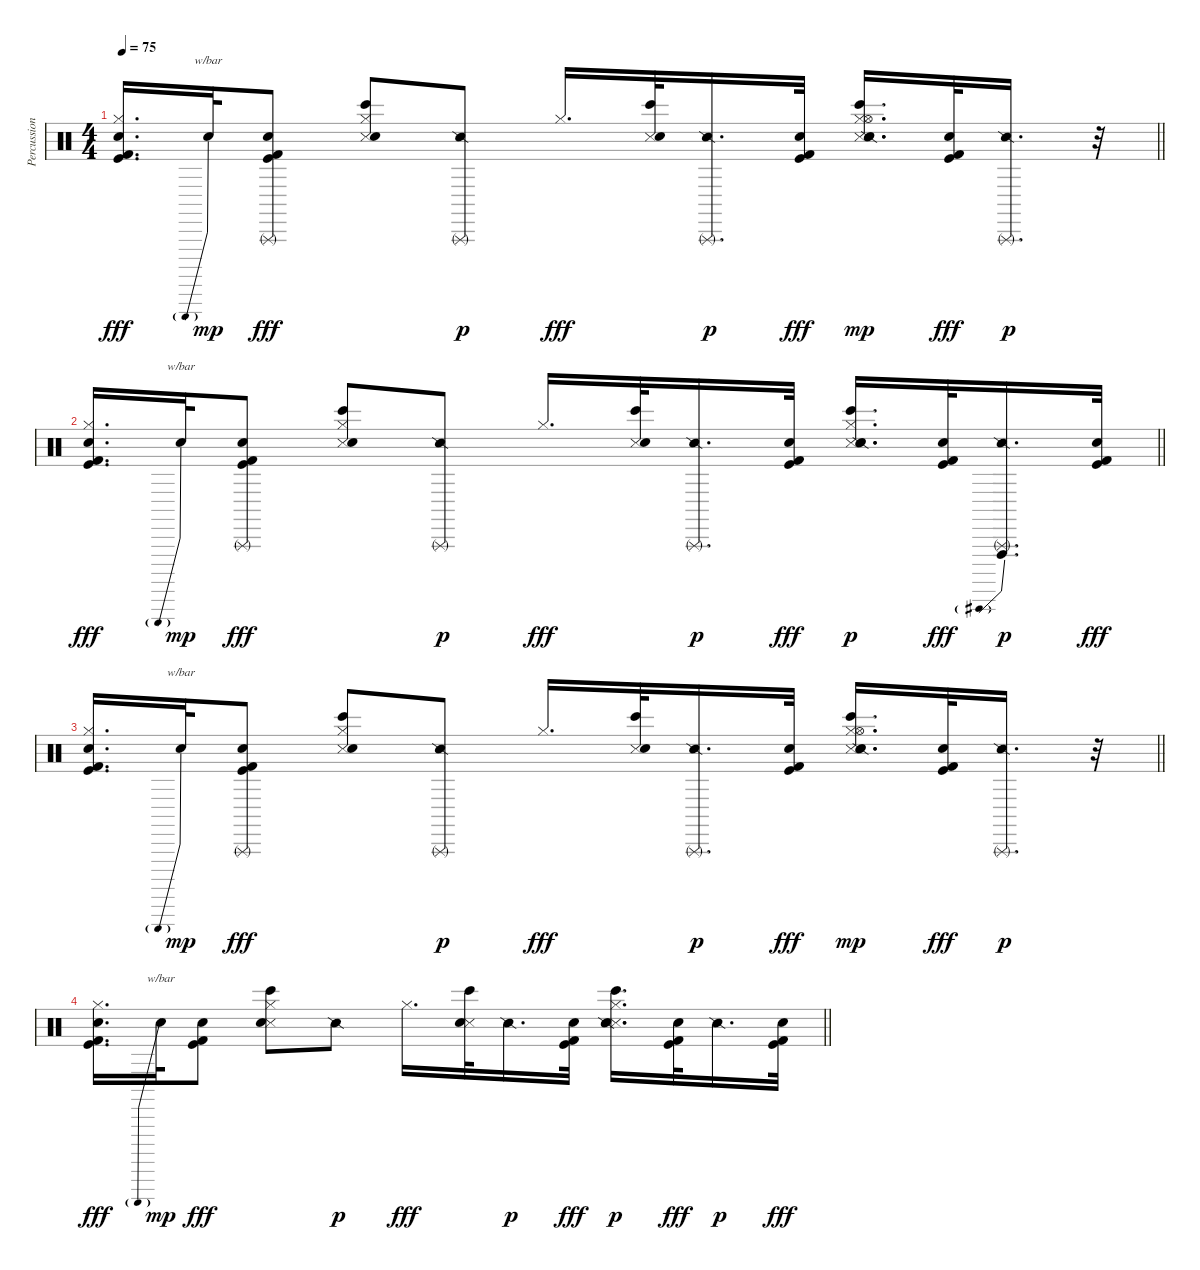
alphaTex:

\track ("Percussion" "Percussion") {instrument percussion}
\staff {score}
\articulation defaults
\ts (4 4)
\tempo 75
\clef neutral
\barLineRight lightlight
\ks c
("Hi-Hat (closed)" "Snare (hit) 2" "Kick (hit)" "Kick (hit) 2").16{d dy fff} "Hand Clap (hit)".32{tbe (predive default 0 24 60 24) dy mp} ("Triangle (rnute)" "Snare (hit) 2" "Kick (hit)" "Kick (hit) 2").8{dy fff} ("Hi-Hat (closed)" "Snare (side stick) 3" "Snare (hit) 2" "Bongo High (hit)").8 ("Triangle (rnute)" "Snare (side stick) 2").8{dy p} "Hi-Hat (closed)".16{d dy fff} ("Snare (side stick) 3" "Snare (hit) 2" "Bongo High (hit)").32 ("Triangle (rnute)" "Snare (side stick) 2").16{d dy p} ("Snare (hit) 2" "Kick (hit)" "Kick (hit) 2").32{dy fff} ("Hi-Hat (closed)" "Snare (side stick) 3" "Snare (hit) 2" "Bongo High (hit)" "Snare (side stick) 2" "Hi-Hat (open)").16{d dy mp} ("Snare (hit) 2" "Kick (hit)" "Kick (hit) 2").32{dy fff} ("Triangle (rnute)" "Snare (side stick) 2").16{d dy p} r.32 |
\barLineRight lightlight
("Hi-Hat (closed)" "Snare (hit) 2" "Kick (hit)" "Kick (hit) 2").16{d dy fff} "Hand Clap (hit)".32{tbe (predive default 0 24 60 24) dy mp} ("Triangle (rnute)" "Snare (hit) 2" "Kick (hit)" "Kick (hit) 2").8{dy fff} ("Hi-Hat (closed)" "Snare (side stick) 3" "Snare (hit) 2" "Bongo High (hit)").8 ("Triangle (rnute)" "Snare (side stick) 2").8{dy p} "Hi-Hat (closed)".16{d dy fff} ("Snare (side stick) 3" "Snare (hit) 2" "Bongo High (hit)").32 ("Triangle (rnute)" "Snare (side stick) 2").16{d dy p} ("Snare (hit) 2" "Kick (hit)" "Kick (hit) 2").32{dy fff} ("Hi-Hat (closed)" "Snare (side stick) 3" "Snare (hit) 2" "Bongo High (hit)" "Snare (side stick) 2").16{d dy p} ("Snare (hit) 2" "Kick (hit)" "Kick (hit) 2").32{dy fff} ("Triangle (rnute)" "Snare (side stick) 2" "Vibraslap (hit)"{be (prebend 0 12 60 12)}).16{d dy p} ("Snare (hit) 2" "Kick (hit)" "Kick (hit) 2").32{dy fff} |
\barLineRight lightlight
("Hi-Hat (closed)" "Snare (hit) 2" "Kick (hit)" "Kick (hit) 2").16{d} "Hand Clap (hit)".32{tbe (predive default 0 24 60 24) dy mp} ("Triangle (rnute)" "Snare (hit) 2" "Kick (hit)" "Kick (hit) 2").8{dy fff} ("Hi-Hat (closed)" "Snare (side stick) 3" "Snare (hit) 2" "Bongo High (hit)").8 ("Triangle (rnute)" "Snare (side stick) 2").8{dy p} "Hi-Hat (closed)".16{d dy fff} ("Snare (side stick) 3" "Snare (hit) 2" "Bongo High (hit)").32 ("Triangle (rnute)" "Snare (side stick) 2").16{d dy p} ("Snare (hit) 2" "Kick (hit)" "Kick (hit) 2").32{dy fff} ("Hi-Hat (closed)" "Snare (side stick) 3" "Snare (hit) 2" "Bongo High (hit)" "Snare (side stick) 2" "Hi-Hat (open)").16{d dy mp} ("Snare (hit) 2" "Kick (hit)" "Kick (hit) 2").32{dy fff} ("Triangle (rnute)" "Snare (side stick) 2").16{d dy p} r.32 |
\barLineRight lightlight
("Hi-Hat (closed)" "Snare (hit) 2" "Kick (hit)" "Kick (hit) 2").16{d dy fff} "Hand Clap (hit)".32{tbe (predive default 0 24 60 24) dy mp} ("Snare (hit) 2" "Kick (hit)" "Kick (hit) 2").8{dy fff} ("Hi-Hat (closed)" "Snare (side stick) 3" "Snare (hit) 2" "Bongo High (hit)").8 "Snare (side stick) 2".8{dy p} "Hi-Hat (closed)".16{d dy fff} ("Snare (side stick) 3" "Snare (hit) 2" "Bongo High (hit)").32 "Snare (side stick) 2".16{d dy p} ("Snare (hit) 2" "Kick (hit)" "Kick (hit) 2").32{dy fff} ("Hi-Hat (closed)" "Snare (side stick) 3" "Snare (hit) 2" "Bongo High (hit)" "Snare (side stick) 2").16{d dy p} ("Snare (hit) 2" "Kick (hit)" "Kick (hit) 2").32{dy fff} "Snare (side stick) 2".16{d dy p} ("Snare (hit) 2" "Kick (hit)" "Kick (hit) 2").32{dy fff}
